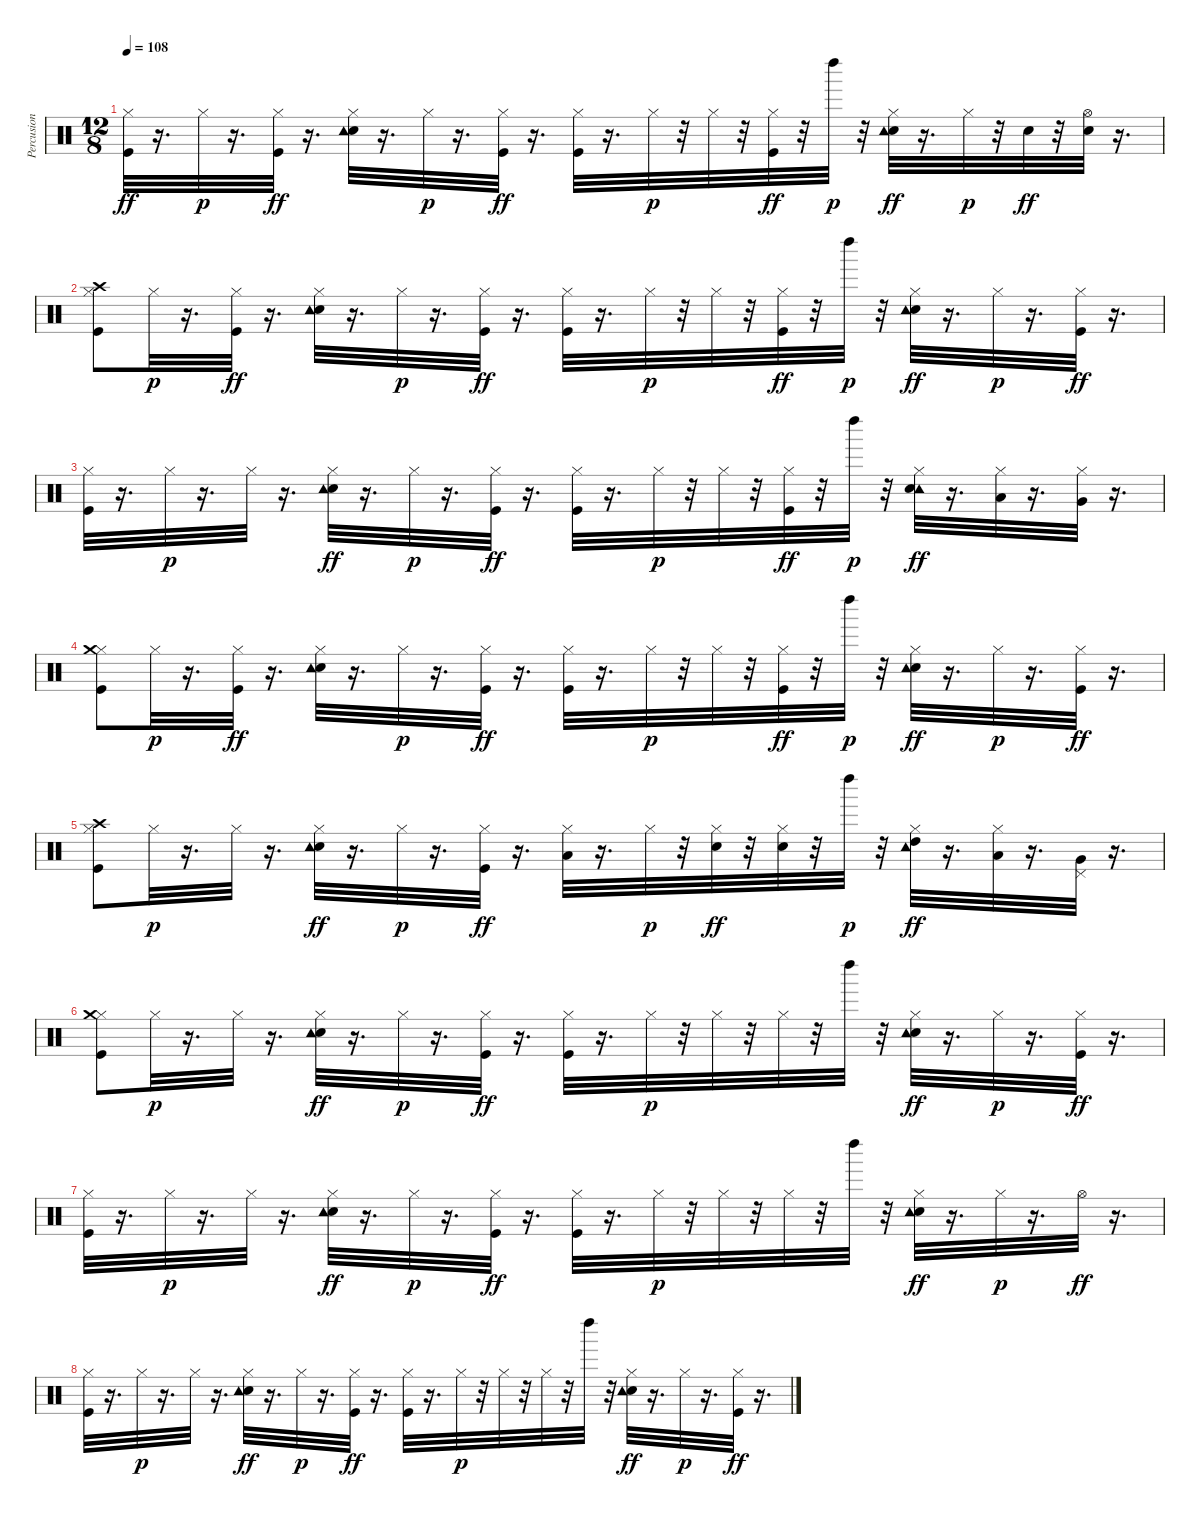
\track ("Percusion (Matt)" "Percusion ") {instrument percussion}
\staff {score}
\articulation defaults
\ts (12 8)
\tempo 108
\clef neutral
\ks c
("Hi-Hat (closed)" "Kick (hit)").32{dy ff} r.16{d} "Hi-Hat (closed)".32{dy p} r.16{d} ("Hi-Hat (closed)" "Kick (hit)").32{dy ff} r.16{d} ("Hi-Hat (closed)" "Electric Snare (hit)" "Tambourine (hit)").32 r.16{d} "Hi-Hat (closed)".32{dy p} r.16{d} ("Hi-Hat (closed)" "Kick (hit)").32{dy ff} r.16{d} ("Hi-Hat (closed)" "Kick (hit)").32 r.16{d} "Hi-Hat (closed)".32{dy p} r.32 "Hi-Hat (closed)".32 r.32 ("Hi-Hat (closed)" "Kick (hit)").32{dy ff} r.32 "Left Maraca (hit)".32{dy p} r.32 ("Hi-Hat (closed)" "Electric Snare (hit)" "Tambourine (hit)").32{dy ff} r.16{d} "Hi-Hat (closed)".32{dy p} r.32 "Snare (hit) 2".32{dy ff} r.32 ("Hi-Hat (open)" "Electric Snare (hit)").32 r.16{d} |
("Hi-Hat (closed)" "Kick (hit)" "Crash high (hit)").8 "Hi-Hat (closed)".32{dy p} r.16{d} ("Hi-Hat (closed)" "Kick (hit)").32{dy ff} r.16{d} ("Hi-Hat (closed)" "Electric Snare (hit)" "Tambourine (hit)").32 r.16{d} "Hi-Hat (closed)".32{dy p} r.16{d} ("Hi-Hat (closed)" "Kick (hit)").32{dy ff} r.16{d} ("Hi-Hat (closed)" "Kick (hit)").32 r.16{d} "Hi-Hat (closed)".32{dy p} r.32 "Hi-Hat (closed)".32 r.32 ("Hi-Hat (closed)" "Kick (hit)").32{dy ff} r.32 "Left Maraca (hit)".32{dy p} r.32 ("Hi-Hat (closed)" "Electric Snare (hit)" "Tambourine (hit)").32{dy ff} r.16{d} "Hi-Hat (closed)".32{dy p} r.16{d} ("Hi-Hat (closed)" "Kick (hit)").32{dy ff} r.16{d} |
("Hi-Hat (closed)" "Kick (hit)").32 r.16{d} "Hi-Hat (closed)".32{dy p} r.16{d} "Hi-Hat (closed)".32 r.16{d} ("Hi-Hat (closed)" "Electric Snare (hit)" "Tambourine (hit)").32{dy ff} r.16{d} "Hi-Hat (closed)".32{dy p} r.16{d} ("Hi-Hat (closed)" "Kick (hit)").32{dy ff} r.16{d} ("Hi-Hat (closed)" "Kick (hit)").32 r.16{d} "Hi-Hat (closed)".32{dy p} r.32 "Hi-Hat (closed)".32 r.32 ("Hi-Hat (closed)" "Kick (hit)").32{dy ff} r.32 "Left Maraca (hit)".32{dy p} r.32 ("Hi-Hat (closed)" "Tambourine (hit)" "Electric Snare (hit)").32{dy ff} r.16{d} ("Hi-Hat (closed)" "Low Tom (hit)").32 r.16{d} ("Hi-Hat (closed)" "Very Low Tom (hit)").32 r.16{d} |
("Hi-Hat (closed)" "Kick (hit)" "Crash medium (hit)").8 "Hi-Hat (closed)".32{dy p} r.16{d} ("Hi-Hat (closed)" "Kick (hit)").32{dy ff} r.16{d} ("Hi-Hat (closed)" "Electric Snare (hit)" "Tambourine (hit)").32 r.16{d} "Hi-Hat (closed)".32{dy p} r.16{d} ("Hi-Hat (closed)" "Kick (hit)").32{dy ff} r.16{d} ("Hi-Hat (closed)" "Kick (hit)").32 r.16{d} "Hi-Hat (closed)".32{dy p} r.32 "Hi-Hat (closed)".32 r.32 ("Hi-Hat (closed)" "Kick (hit)").32{dy ff} r.32 "Left Maraca (hit)".32{dy p} r.32 ("Hi-Hat (closed)" "Electric Snare (hit)" "Tambourine (hit)").32{dy ff} r.16{d} "Hi-Hat (closed)".32{dy p} r.16{d} ("Hi-Hat (closed)" "Kick (hit)").32{dy ff} r.16{d} |
("Hi-Hat (closed)" "Kick (hit)" "Crash high (hit)").8 "Hi-Hat (closed)".32{dy p} r.16{d} "Hi-Hat (closed)".32 r.16{d} ("Hi-Hat (closed)" "Electric Snare (hit)" "Tambourine (hit)").32{dy ff} r.16{d} "Hi-Hat (closed)".32{dy p} r.16{d} ("Hi-Hat (closed)" "Kick (hit)").32{dy ff} r.16{d} ("Hi-Hat (closed)" "Low Tom (hit)").32 r.16{d} "Hi-Hat (closed)".32{dy p} r.32 ("Hi-Hat (closed)" "Electric Snare (hit)").32{dy ff} r.32 ("Hi-Hat (closed)" "Electric Snare (hit)").32 r.32 "Left Maraca (hit)".32{dy p} r.32 ("Hi-Hat (closed)" "Tambourine (hit)" "High Tom (hit)").32{dy ff} r.16{d} ("Hi-Hat (closed)" "Low Tom (hit)").32 r.16{d} ("Very Low Tom (hit)" "Pedal Hi-Hat (hit)").32 r.16{d} |
("Hi-Hat (closed)" "Kick (hit)" "Crash medium (hit)").8 "Hi-Hat (closed)".32{dy p} r.16{d} "Hi-Hat (closed)".32 r.16{d} ("Hi-Hat (closed)" "Electric Snare (hit)" "Tambourine (hit)").32{dy ff} r.16{d} "Hi-Hat (closed)".32{dy p} r.16{d} ("Hi-Hat (closed)" "Kick (hit)").32{dy ff} r.16{d} ("Hi-Hat (closed)" "Kick (hit)").32 r.16{d} "Hi-Hat (closed)".32{dy p} r.32 "Hi-Hat (closed)".32 r.32 "Hi-Hat (closed)".32 r.32 "Left Maraca (hit)".32 r.32 ("Hi-Hat (closed)" "Electric Snare (hit)" "Tambourine (hit)").32{dy ff} r.16{d} "Hi-Hat (closed)".32{dy p} r.16{d} ("Hi-Hat (closed)" "Kick (hit)").32{dy ff} r.16{d} |
("Hi-Hat (closed)" "Kick (hit)").32 r.16{d} "Hi-Hat (closed)".32{dy p} r.16{d} "Hi-Hat (closed)".32 r.16{d} ("Hi-Hat (closed)" "Electric Snare (hit)" "Tambourine (hit)").32{dy ff} r.16{d} "Hi-Hat (closed)".32{dy p} r.16{d} ("Hi-Hat (closed)" "Kick (hit)").32{dy ff} r.16{d} ("Hi-Hat (closed)" "Kick (hit)").32 r.16{d} "Hi-Hat (closed)".32{dy p} r.32 "Hi-Hat (closed)".32 r.32 "Hi-Hat (closed)".32 r.32 "Left Maraca (hit)".32 r.32 ("Hi-Hat (closed)" "Electric Snare (hit)" "Tambourine (hit)").32{dy ff} r.16{d} "Hi-Hat (closed)".32{dy p} r.16{d} "Hi-Hat (open)".32{dy ff} r.16{d} |
("Hi-Hat (closed)" "Kick (hit)").32 r.16{d} "Hi-Hat (closed)".32{dy p} r.16{d} "Hi-Hat (closed)".32 r.16{d} ("Hi-Hat (closed)" "Electric Snare (hit)" "Tambourine (hit)").32{dy ff} r.16{d} "Hi-Hat (closed)".32{dy p} r.16{d} ("Hi-Hat (closed)" "Kick (hit)").32{dy ff} r.16{d} ("Hi-Hat (closed)" "Kick (hit)").32 r.16{d} "Hi-Hat (closed)".32{dy p} r.32 "Hi-Hat (closed)".32 r.32 "Hi-Hat (closed)".32 r.32 "Left Maraca (hit)".32 r.32 ("Hi-Hat (closed)" "Electric Snare (hit)" "Tambourine (hit)").32{dy ff} r.16{d} "Hi-Hat (closed)".32{dy p} r.16{d} ("Hi-Hat (closed)" "Kick (hit)").32{dy ff} r.16{d}
